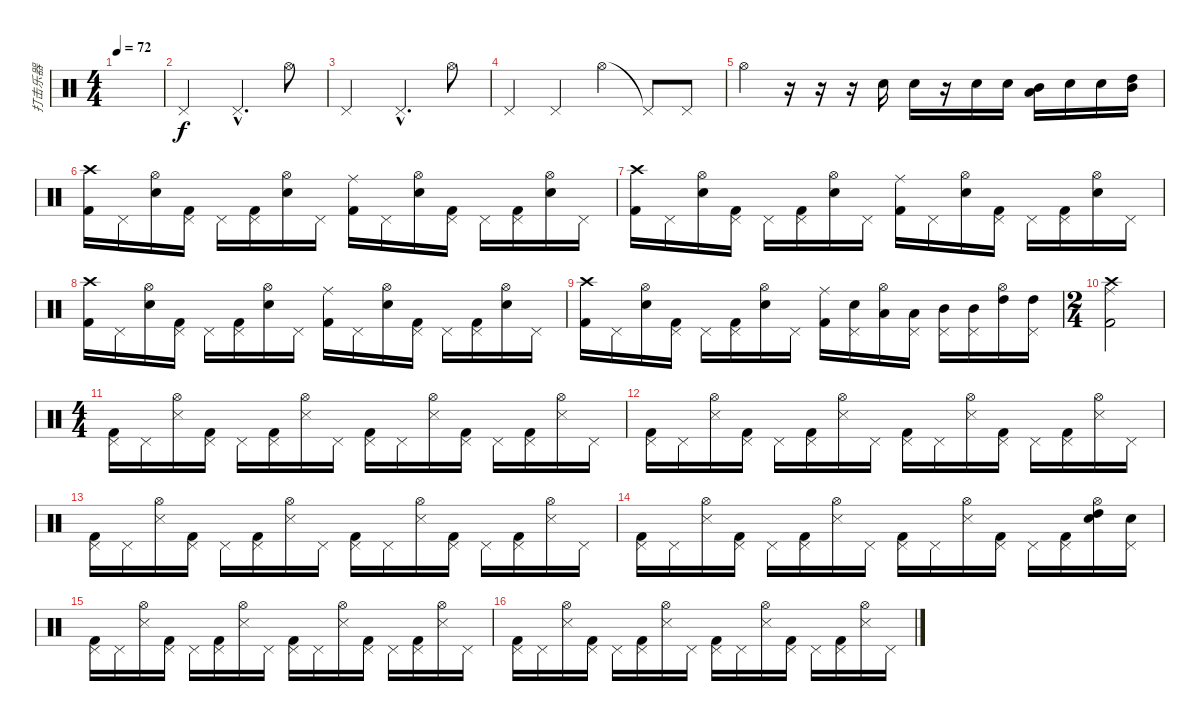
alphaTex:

\track ("打击乐器" "打击乐器") {instrument percussion}
\staff {score}
\articulation defaults
\ts (4 4)
\tempo 72
\clef neutral
\ks c
|
"Pedal Hi-Hat (hit)".2 "Pedal Hi-Hat (hit)"{hac}.4{d} "Hi-Hat (open)".8 |
"Pedal Hi-Hat (hit)".2 "Pedal Hi-Hat (hit)"{hac}.4{d} "Hi-Hat (open)".8 |
"Pedal Hi-Hat (hit)".4 "Pedal Hi-Hat (hit)".4 "Hi-Hat (open)".4 "Pedal Hi-Hat (hit)"{t}.8 "Pedal Hi-Hat (hit)".8 |
"Hi-Hat (open)".4 r.16 r.16 r.16 "Snare (hit) 2".16 "Snare (hit) 2".16 r.16 "Snare (hit) 2".16 "Snare (hit) 2".16 ("Mid Tom (hit)" "Low Tom (hit)").16 "Snare (hit) 2".16 "Snare (hit) 2".16 ("High Tom (hit)" "Mid Tom (hit)").16 |
("Crash high (hit)" "Kick (hit) 2").16 "Pedal Hi-Hat (hit)".16 ("Hi-Hat (open)" "Electric Snare (hit)").16 ("Pedal Hi-Hat (hit)" "Kick (hit) 2").16 "Pedal Hi-Hat (hit)".16 ("Pedal Hi-Hat (hit)" "Kick (hit) 2").16 ("Hi-Hat (open)" "Electric Snare (hit)").16 "Pedal Hi-Hat (hit)".16 ("Ride (middle)" "Kick (hit) 2").16 "Pedal Hi-Hat (hit)".16 ("Hi-Hat (open)" "Electric Snare (hit)").16 ("Pedal Hi-Hat (hit)" "Kick (hit) 2").16 "Pedal Hi-Hat (hit)".16 ("Pedal Hi-Hat (hit)" "Kick (hit) 2").16 ("Hi-Hat (open)" "Electric Snare (hit)").16 "Pedal Hi-Hat (hit)".16 |
("Crash high (hit)" "Kick (hit) 2").16 "Pedal Hi-Hat (hit)".16 ("Hi-Hat (open)" "Electric Snare (hit)").16 ("Pedal Hi-Hat (hit)" "Kick (hit) 2").16 "Pedal Hi-Hat (hit)".16 ("Pedal Hi-Hat (hit)" "Kick (hit) 2").16 ("Hi-Hat (open)" "Electric Snare (hit)").16 "Pedal Hi-Hat (hit)".16 ("Ride (middle)" "Kick (hit) 2").16 "Pedal Hi-Hat (hit)".16 ("Hi-Hat (open)" "Electric Snare (hit)").16 ("Pedal Hi-Hat (hit)" "Kick (hit) 2").16 "Pedal Hi-Hat (hit)".16 ("Pedal Hi-Hat (hit)" "Kick (hit) 2").16 ("Hi-Hat (open)" "Electric Snare (hit)").16 "Pedal Hi-Hat (hit)".16 |
("Crash high (hit)" "Kick (hit) 2").16 "Pedal Hi-Hat (hit)".16 ("Hi-Hat (open)" "Electric Snare (hit)").16 ("Pedal Hi-Hat (hit)" "Kick (hit) 2").16 "Pedal Hi-Hat (hit)".16 ("Pedal Hi-Hat (hit)" "Kick (hit) 2").16 ("Hi-Hat (open)" "Electric Snare (hit)").16 "Pedal Hi-Hat (hit)".16 ("Ride (middle)" "Kick (hit) 2").16 "Pedal Hi-Hat (hit)".16 ("Hi-Hat (open)" "Electric Snare (hit)").16 ("Pedal Hi-Hat (hit)" "Kick (hit) 2").16 "Pedal Hi-Hat (hit)".16 ("Pedal Hi-Hat (hit)" "Kick (hit) 2").16 ("Hi-Hat (open)" "Electric Snare (hit)").16 "Pedal Hi-Hat (hit)".16 |
("Crash high (hit)" "Kick (hit) 2").16 "Pedal Hi-Hat (hit)".16 ("Hi-Hat (open)" "Electric Snare (hit)").16 ("Pedal Hi-Hat (hit)" "Kick (hit) 2").16 "Pedal Hi-Hat (hit)".16 ("Pedal Hi-Hat (hit)" "Kick (hit) 2").16 ("Hi-Hat (open)" "Electric Snare (hit)").16 "Pedal Hi-Hat (hit)".16 ("Ride (middle)" "Kick (hit) 2").16 ("Pedal Hi-Hat (hit)" "Electric Snare (hit)").16 ("Hi-Hat (open)" "Low Tom (hit)").16 ("Pedal Hi-Hat (hit)" "Low Tom (hit)").16 ("Pedal Hi-Hat (hit)" "Mid Tom (hit)").16 ("Pedal Hi-Hat (hit)" "Mid Tom (hit)").16 ("Hi-Hat (open)" "High Tom (hit)").16 ("Pedal Hi-Hat (hit)" "High Tom (hit)").16 |
\ts (2 4)
("Crash high (hit)" "Ride (middle)" "Kick (hit) 2").2 |
\ts (4 4)
("Pedal Hi-Hat (hit)" "Kick (hit) 2").16 "Pedal Hi-Hat (hit)".16 ("Hi-Hat (open)" "Snare (side stick) 3").16 ("Pedal Hi-Hat (hit)" "Kick (hit) 2").16 "Pedal Hi-Hat (hit)".16 ("Pedal Hi-Hat (hit)" "Kick (hit) 2").16 ("Hi-Hat (open)" "Snare (side stick) 3").16 "Pedal Hi-Hat (hit)".16 ("Pedal Hi-Hat (hit)" "Kick (hit) 2").16 "Pedal Hi-Hat (hit)".16 ("Hi-Hat (open)" "Snare (side stick) 3").16 ("Pedal Hi-Hat (hit)" "Kick (hit) 2").16 "Pedal Hi-Hat (hit)".16 ("Pedal Hi-Hat (hit)" "Kick (hit) 2").16 ("Hi-Hat (open)" "Snare (side stick) 3").16 "Pedal Hi-Hat (hit)".16 |
("Pedal Hi-Hat (hit)" "Kick (hit) 2").16 "Pedal Hi-Hat (hit)".16 ("Hi-Hat (open)" "Snare (side stick) 3").16 ("Pedal Hi-Hat (hit)" "Kick (hit) 2").16 "Pedal Hi-Hat (hit)".16 ("Pedal Hi-Hat (hit)" "Kick (hit) 2").16 ("Hi-Hat (open)" "Snare (side stick) 3").16 "Pedal Hi-Hat (hit)".16 ("Pedal Hi-Hat (hit)" "Kick (hit) 2").16 "Pedal Hi-Hat (hit)".16 ("Hi-Hat (open)" "Snare (side stick) 3").16 ("Pedal Hi-Hat (hit)" "Kick (hit) 2").16 "Pedal Hi-Hat (hit)".16 ("Pedal Hi-Hat (hit)" "Kick (hit) 2").16 ("Hi-Hat (open)" "Snare (side stick) 3").16 "Pedal Hi-Hat (hit)".16 |
("Pedal Hi-Hat (hit)" "Kick (hit) 2").16 "Pedal Hi-Hat (hit)".16 ("Hi-Hat (open)" "Snare (side stick) 3").16 ("Pedal Hi-Hat (hit)" "Kick (hit) 2").16 "Pedal Hi-Hat (hit)".16 ("Pedal Hi-Hat (hit)" "Kick (hit) 2").16 ("Hi-Hat (open)" "Snare (side stick) 3").16 "Pedal Hi-Hat (hit)".16 ("Pedal Hi-Hat (hit)" "Kick (hit) 2").16 "Pedal Hi-Hat (hit)".16 ("Hi-Hat (open)" "Snare (side stick) 3").16 ("Pedal Hi-Hat (hit)" "Kick (hit) 2").16 "Pedal Hi-Hat (hit)".16 ("Pedal Hi-Hat (hit)" "Kick (hit) 2").16 ("Hi-Hat (open)" "Snare (side stick) 3").16 "Pedal Hi-Hat (hit)".16 |
("Pedal Hi-Hat (hit)" "Kick (hit) 2").16 "Pedal Hi-Hat (hit)".16 ("Hi-Hat (open)" "Snare (side stick) 3").16 ("Pedal Hi-Hat (hit)" "Kick (hit) 2").16 "Pedal Hi-Hat (hit)".16 ("Pedal Hi-Hat (hit)" "Kick (hit) 2").16 ("Hi-Hat (open)" "Snare (side stick) 3").16 "Pedal Hi-Hat (hit)".16 ("Pedal Hi-Hat (hit)" "Kick (hit) 2").16 "Pedal Hi-Hat (hit)".16 ("Hi-Hat (open)" "Snare (side stick) 3").16 ("Pedal Hi-Hat (hit)" "Kick (hit) 2").16 "Pedal Hi-Hat (hit)".16 ("Pedal Hi-Hat (hit)" "Kick (hit) 2").16 ("Hi-Hat (open)" "High Tom (hit)" "Electric Snare (hit)").16 ("Pedal Hi-Hat (hit)" "Electric Snare (hit)").16 |
("Pedal Hi-Hat (hit)" "Kick (hit) 2").16 "Pedal Hi-Hat (hit)".16 ("Hi-Hat (open)" "Snare (side stick) 3").16 ("Pedal Hi-Hat (hit)" "Kick (hit) 2").16 "Pedal Hi-Hat (hit)".16 ("Pedal Hi-Hat (hit)" "Kick (hit) 2").16 ("Hi-Hat (open)" "Snare (side stick) 3").16 "Pedal Hi-Hat (hit)".16 ("Pedal Hi-Hat (hit)" "Kick (hit) 2").16 "Pedal Hi-Hat (hit)".16 ("Hi-Hat (open)" "Snare (side stick) 3").16 ("Pedal Hi-Hat (hit)" "Kick (hit) 2").16 "Pedal Hi-Hat (hit)".16 ("Pedal Hi-Hat (hit)" "Kick (hit) 2").16 ("Hi-Hat (open)" "Snare (side stick) 3").16 "Pedal Hi-Hat (hit)".16 |
("Pedal Hi-Hat (hit)" "Kick (hit) 2").16 "Pedal Hi-Hat (hit)".16 ("Hi-Hat (open)" "Snare (side stick) 3").16 ("Pedal Hi-Hat (hit)" "Kick (hit) 2").16 "Pedal Hi-Hat (hit)".16 ("Pedal Hi-Hat (hit)" "Kick (hit) 2").16 ("Hi-Hat (open)" "Snare (side stick) 3").16 "Pedal Hi-Hat (hit)".16 ("Pedal Hi-Hat (hit)" "Kick (hit) 2").16 "Pedal Hi-Hat (hit)".16 ("Hi-Hat (open)" "Snare (side stick) 3").16 ("Pedal Hi-Hat (hit)" "Kick (hit) 2").16 "Pedal Hi-Hat (hit)".16 ("Pedal Hi-Hat (hit)" "Kick (hit) 2").16 ("Hi-Hat (open)" "Snare (side stick) 3").16 "Pedal Hi-Hat (hit)".16
